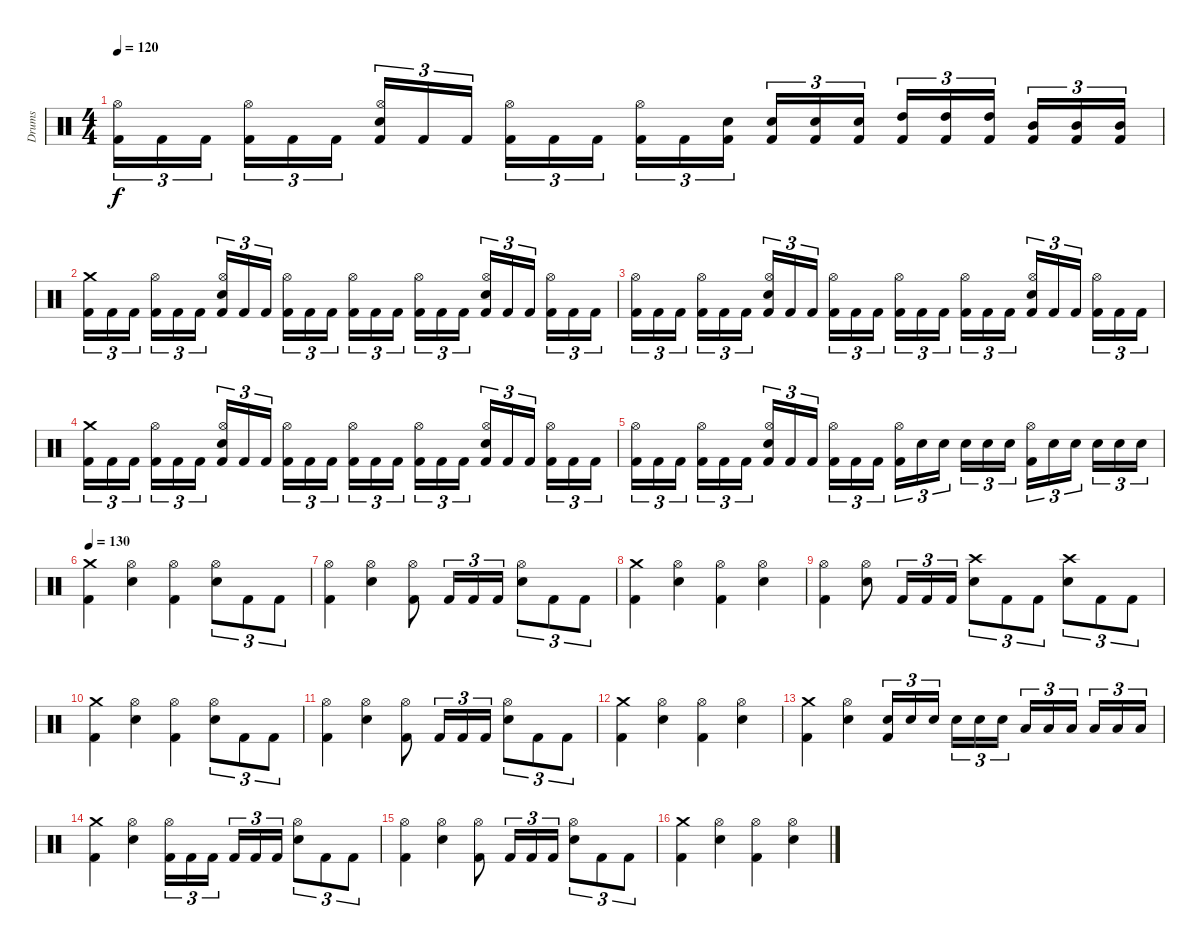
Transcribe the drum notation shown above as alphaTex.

\track ("Drums" "Drums") {instrument percussion}
\staff {score}
\articulation defaults
\ts (4 4)
\tempo 120
\clef neutral
\ks c
("Kick (hit) 2" "Hi-Hat (open)").16{tu (3 2) dy f} "Kick (hit) 2".16{tu (3 2)} "Kick (hit) 2".16{tu (3 2)} ("Kick (hit) 2" "Hi-Hat (open)").16{tu (3 2)} "Kick (hit) 2".16{tu (3 2)} "Kick (hit) 2".16{tu (3 2)} ("Kick (hit) 2" "Electric Snare (hit)" "Hi-Hat (open)").16{tu (3 2)} "Kick (hit) 2".16{tu (3 2)} "Kick (hit) 2".16{tu (3 2)} ("Kick (hit) 2" "Hi-Hat (open)").16{tu (3 2)} "Kick (hit) 2".16{tu (3 2)} "Kick (hit) 2".16{tu (3 2)} ("Kick (hit) 2" "Hi-Hat (open)").16{tu (3 2)} "Kick (hit) 2".16{tu (3 2)} ("Kick (hit) 2" "Electric Snare (hit)").16{tu (3 2)} ("Kick (hit) 2" "Electric Snare (hit)").16{tu (3 2)} ("Kick (hit) 2" "Electric Snare (hit)").16{tu (3 2)} ("Kick (hit) 2" "Electric Snare (hit)").16{tu (3 2)} ("Kick (hit) 2" "High Tom (hit)").16{tu (3 2)} ("Kick (hit) 2" "High Tom (hit)").16{tu (3 2)} ("Kick (hit) 2" "High Tom (hit)").16{tu (3 2)} ("Kick (hit) 2" "Mid Tom (hit)").16{tu (3 2)} ("Kick (hit) 2" "Mid Tom (hit)").16{tu (3 2)} ("Kick (hit) 2" "Mid Tom (hit)").16{tu (3 2)} |
("Kick (hit) 2" "Crash medium (hit)").16{tu (3 2)} "Kick (hit) 2".16{tu (3 2)} "Kick (hit) 2".16{tu (3 2)} ("Kick (hit) 2" "Hi-Hat (open)").16{tu (3 2)} "Kick (hit) 2".16{tu (3 2)} "Kick (hit) 2".16{tu (3 2)} ("Kick (hit) 2" "Electric Snare (hit)" "Hi-Hat (open)").16{tu (3 2)} "Kick (hit) 2".16{tu (3 2)} "Kick (hit) 2".16{tu (3 2)} ("Kick (hit) 2" "Hi-Hat (open)").16{tu (3 2)} "Kick (hit) 2".16{tu (3 2)} "Kick (hit) 2".16{tu (3 2)} ("Kick (hit) 2" "Hi-Hat (open)").16{tu (3 2)} "Kick (hit) 2".16{tu (3 2)} "Kick (hit) 2".16{tu (3 2)} ("Kick (hit) 2" "Hi-Hat (open)").16{tu (3 2)} "Kick (hit) 2".16{tu (3 2)} "Kick (hit) 2".16{tu (3 2)} ("Kick (hit) 2" "Electric Snare (hit)" "Hi-Hat (open)").16{tu (3 2)} "Kick (hit) 2".16{tu (3 2)} "Kick (hit) 2".16{tu (3 2)} ("Kick (hit) 2" "Hi-Hat (open)").16{tu (3 2)} "Kick (hit) 2".16{tu (3 2)} "Kick (hit) 2".16{tu (3 2)} |
("Kick (hit) 2" "Hi-Hat (open)").16{tu (3 2)} "Kick (hit) 2".16{tu (3 2)} "Kick (hit) 2".16{tu (3 2)} ("Kick (hit) 2" "Hi-Hat (open)").16{tu (3 2)} "Kick (hit) 2".16{tu (3 2)} "Kick (hit) 2".16{tu (3 2)} ("Kick (hit) 2" "Electric Snare (hit)" "Hi-Hat (open)").16{tu (3 2)} "Kick (hit) 2".16{tu (3 2)} "Kick (hit) 2".16{tu (3 2)} ("Kick (hit) 2" "Hi-Hat (open)").16{tu (3 2)} "Kick (hit) 2".16{tu (3 2)} "Kick (hit) 2".16{tu (3 2)} ("Kick (hit) 2" "Hi-Hat (open)").16{tu (3 2)} "Kick (hit) 2".16{tu (3 2)} "Kick (hit) 2".16{tu (3 2)} ("Kick (hit) 2" "Hi-Hat (open)").16{tu (3 2)} "Kick (hit) 2".16{tu (3 2)} "Kick (hit) 2".16{tu (3 2)} ("Kick (hit) 2" "Electric Snare (hit)" "Hi-Hat (open)").16{tu (3 2)} "Kick (hit) 2".16{tu (3 2)} "Kick (hit) 2".16{tu (3 2)} ("Kick (hit) 2" "Hi-Hat (open)").16{tu (3 2)} "Kick (hit) 2".16{tu (3 2)} "Kick (hit) 2".16{tu (3 2)} |
("Kick (hit) 2" "Crash medium (hit)").16{tu (3 2)} "Kick (hit) 2".16{tu (3 2)} "Kick (hit) 2".16{tu (3 2)} ("Kick (hit) 2" "Hi-Hat (open)").16{tu (3 2)} "Kick (hit) 2".16{tu (3 2)} "Kick (hit) 2".16{tu (3 2)} ("Kick (hit) 2" "Electric Snare (hit)" "Hi-Hat (open)").16{tu (3 2)} "Kick (hit) 2".16{tu (3 2)} "Kick (hit) 2".16{tu (3 2)} ("Kick (hit) 2" "Hi-Hat (open)").16{tu (3 2)} "Kick (hit) 2".16{tu (3 2)} "Kick (hit) 2".16{tu (3 2)} ("Kick (hit) 2" "Hi-Hat (open)").16{tu (3 2)} "Kick (hit) 2".16{tu (3 2)} "Kick (hit) 2".16{tu (3 2)} ("Kick (hit) 2" "Hi-Hat (open)").16{tu (3 2)} "Kick (hit) 2".16{tu (3 2)} "Kick (hit) 2".16{tu (3 2)} ("Kick (hit) 2" "Electric Snare (hit)" "Hi-Hat (open)").16{tu (3 2)} "Kick (hit) 2".16{tu (3 2)} "Kick (hit) 2".16{tu (3 2)} ("Kick (hit) 2" "Hi-Hat (open)").16{tu (3 2)} "Kick (hit) 2".16{tu (3 2)} "Kick (hit) 2".16{tu (3 2)} |
("Kick (hit) 2" "Hi-Hat (open)").16{tu (3 2)} "Kick (hit) 2".16{tu (3 2)} "Kick (hit) 2".16{tu (3 2)} ("Kick (hit) 2" "Hi-Hat (open)").16{tu (3 2)} "Kick (hit) 2".16{tu (3 2)} "Kick (hit) 2".16{tu (3 2)} ("Kick (hit) 2" "Electric Snare (hit)" "Hi-Hat (open)").16{tu (3 2)} "Kick (hit) 2".16{tu (3 2)} "Kick (hit) 2".16{tu (3 2)} ("Kick (hit) 2" "Hi-Hat (open)").16{tu (3 2)} "Kick (hit) 2".16{tu (3 2)} "Kick (hit) 2".16{tu (3 2)} ("Kick (hit) 2" "Hi-Hat (open)").16{tu (3 2)} "Electric Snare (hit)".16{tu (3 2)} "Electric Snare (hit)".16{tu (3 2)} "Electric Snare (hit)".16{tu (3 2)} "Electric Snare (hit)".16{tu (3 2)} "Electric Snare (hit)".16{tu (3 2)} ("Kick (hit) 2" "Hi-Hat (open)").16{tu (3 2)} "Electric Snare (hit)".16{tu (3 2)} "Electric Snare (hit)".16{tu (3 2)} "Electric Snare (hit)".16{tu (3 2)} "Electric Snare (hit)".16{tu (3 2)} "Electric Snare (hit)".16{tu (3 2)} |
\tempo 130
("Kick (hit) 2" "Crash medium (hit)").4 ("Electric Snare (hit)" "Hi-Hat (open)").4 ("Kick (hit) 2" "Hi-Hat (open)").4 ("Electric Snare (hit)" "Hi-Hat (open)").8{tu (3 2)} "Kick (hit) 2".8{tu (3 2)} "Kick (hit) 2".8{tu (3 2)} |
("Kick (hit) 2" "Hi-Hat (open)").4 ("Electric Snare (hit)" "Hi-Hat (open)").4 ("Kick (hit) 2" "Hi-Hat (open)").8 "Kick (hit) 2".16{tu (3 2)} "Kick (hit) 2".16{tu (3 2)} "Kick (hit) 2".16{tu (3 2)} ("Electric Snare (hit)" "Hi-Hat (open)").8{tu (3 2)} "Kick (hit) 2".8{tu (3 2)} "Kick (hit) 2".8{tu (3 2)} |
("Kick (hit) 2" "Crash medium (hit)").4 ("Electric Snare (hit)" "Hi-Hat (open)").4 ("Kick (hit) 2" "Hi-Hat (open)").4 ("Electric Snare (hit)" "Hi-Hat (open)").4 |
("Kick (hit) 2" "Hi-Hat (open)").4 ("Electric Snare (hit)" "Hi-Hat (open)").8 "Kick (hit) 2".16{tu (3 2)} "Kick (hit) 2".16{tu (3 2)} "Kick (hit) 2".16{tu (3 2)} ("Electric Snare (hit)" "Crash high (hit)").8{tu (3 2)} "Kick (hit) 2".8{tu (3 2)} "Kick (hit) 2".8{tu (3 2)} ("Electric Snare (hit)" "Crash high (hit)").8{tu (3 2)} "Kick (hit) 2".8{tu (3 2)} "Kick (hit) 2".8{tu (3 2)} |
("Kick (hit) 2" "Crash medium (hit)").4 ("Electric Snare (hit)" "Hi-Hat (open)").4 ("Kick (hit) 2" "Hi-Hat (open)").4 ("Electric Snare (hit)" "Hi-Hat (open)").8{tu (3 2)} "Kick (hit) 2".8{tu (3 2)} "Kick (hit) 2".8{tu (3 2)} |
("Kick (hit) 2" "Hi-Hat (open)").4 ("Electric Snare (hit)" "Hi-Hat (open)").4 ("Kick (hit) 2" "Hi-Hat (open)").8 "Kick (hit) 2".16{tu (3 2)} "Kick (hit) 2".16{tu (3 2)} "Kick (hit) 2".16{tu (3 2)} ("Electric Snare (hit)" "Hi-Hat (open)").8{tu (3 2)} "Kick (hit) 2".8{tu (3 2)} "Kick (hit) 2".8{tu (3 2)} |
("Kick (hit) 2" "Crash medium (hit)").4 ("Electric Snare (hit)" "Hi-Hat (open)").4 ("Kick (hit) 2" "Hi-Hat (open)").4 ("Electric Snare (hit)" "Hi-Hat (open)").4 |
("Kick (hit) 2" "Crash medium (hit)").4 ("Electric Snare (hit)" "Hi-Hat (open)").4 ("Kick (hit) 2" "Electric Snare (hit)").16{tu (3 2)} "Electric Snare (hit)".16{tu (3 2)} "Electric Snare (hit)".16{tu (3 2)} "Electric Snare (hit)".16{tu (3 2)} "Electric Snare (hit)".16{tu (3 2)} "Electric Snare (hit)".16{tu (3 2)} "Low Tom (hit)".16{tu (3 2)} "Low Tom (hit)".16{tu (3 2)} "Low Tom (hit)".16{tu (3 2)} "Low Tom (hit)".16{tu (3 2)} "Low Tom (hit)".16{tu (3 2)} "Low Tom (hit)".16{tu (3 2)} |
("Kick (hit) 2" "Crash medium (hit)").4 ("Electric Snare (hit)" "Hi-Hat (open)").4 ("Kick (hit) 2" "Hi-Hat (open)").16{tu (3 2)} "Kick (hit) 2".16{tu (3 2)} "Kick (hit) 2".16{tu (3 2)} "Kick (hit) 2".16{tu (3 2)} "Kick (hit) 2".16{tu (3 2)} "Kick (hit) 2".16{tu (3 2)} ("Electric Snare (hit)" "Hi-Hat (open)").8{tu (3 2)} "Kick (hit) 2".8{tu (3 2)} "Kick (hit) 2".8{tu (3 2)} |
("Kick (hit) 2" "Hi-Hat (open)").4 ("Electric Snare (hit)" "Hi-Hat (open)").4 ("Kick (hit) 2" "Hi-Hat (open)").8 "Kick (hit) 2".16{tu (3 2)} "Kick (hit) 2".16{tu (3 2)} "Kick (hit) 2".16{tu (3 2)} ("Electric Snare (hit)" "Hi-Hat (open)").8{tu (3 2)} "Kick (hit) 2".8{tu (3 2)} "Kick (hit) 2".8{tu (3 2)} |
("Kick (hit) 2" "Crash medium (hit)").4 ("Electric Snare (hit)" "Hi-Hat (open)").4 ("Kick (hit) 2" "Hi-Hat (open)").4 ("Electric Snare (hit)" "Hi-Hat (open)").4
